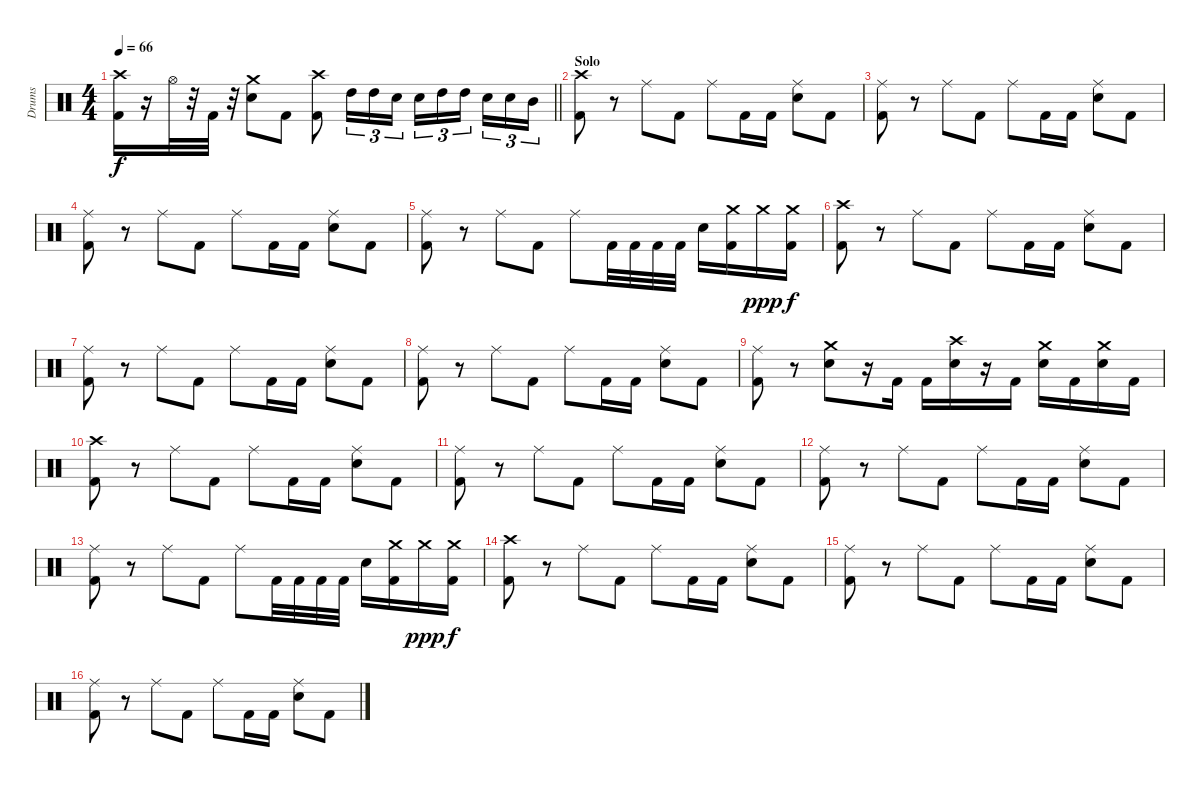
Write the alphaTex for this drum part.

\track ("Drums" "Drums") {instrument percussion}
\staff {score}
\articulation defaults
\ts (4 4)
\tempo 66
\clef neutral
\barLineRight lightlight
\ks c
("Crash high (hit)" "Kick (hit) 2").16{dy f} r.16 "Hi-Hat (open)".32 r.32 "Kick (hit) 2".32 r.32 ("Crash medium (hit)" "Snare (hit) 2").8 "Kick (hit) 2".8 ("Crash high (hit)" "Kick (hit) 2").8 "High Tom (hit)".16{tu (3 2)} "High Tom (hit)".16{tu (3 2)} "Snare (hit) 2".16{tu (3 2)} "Snare (hit) 2".16{tu (3 2)} "High Tom (hit)".16{tu (3 2)} "High Tom (hit)".16{tu (3 2) beam splitsecondary} "Snare (hit) 2".16{tu (3 2)} "Snare (hit) 2".16{tu (3 2)} "Mid Tom (hit)".16{tu (3 2)} |
\section ("" "Solo")
("Crash high (hit)" "Kick (hit) 2").8 r.8 "Ride (middle)".8 "Kick (hit) 2".8 "Ride (middle)".8 "Kick (hit) 2".16 "Kick (hit) 2".16 ("Ride (middle)" "Snare (hit) 2").8 "Kick (hit) 2".8 |
("Ride (middle)" "Kick (hit) 2").8 r.8 "Ride (middle)".8 "Kick (hit) 2".8 "Ride (middle)".8 "Kick (hit) 2".16 "Kick (hit) 2".16 ("Ride (middle)" "Snare (hit) 2").8 "Kick (hit) 2".8 |
("Ride (middle)" "Kick (hit) 2").8 r.8 "Ride (middle)".8 "Kick (hit) 2".8 "Ride (middle)".8 "Kick (hit) 2".16 "Kick (hit) 2".16 ("Ride (middle)" "Snare (hit) 2").8 "Kick (hit) 2".8 |
("Ride (middle)" "Kick (hit) 2").8 r.8 "Ride (middle)".8 "Kick (hit) 2".8 "Ride (middle)".8 "Kick (hit) 2".32 "Kick (hit) 2".32 "Kick (hit) 2".32 "Kick (hit) 2".32 "Snare (hit) 2".16 ("Crash medium (hit)" "Kick (hit) 2").16 "Crash medium (hit)".16{dy ppp} ("Crash medium (hit)" "Kick (hit) 2").16{dy f} |
("Crash high (hit)" "Kick (hit) 2").8 r.8 "Ride (middle)".8 "Kick (hit) 2".8 "Ride (middle)".8 "Kick (hit) 2".16 "Kick (hit) 2".16 ("Ride (middle)" "Snare (hit) 2").8 "Kick (hit) 2".8 |
("Ride (middle)" "Kick (hit) 2").8 r.8 "Ride (middle)".8 "Kick (hit) 2".8 "Ride (middle)".8 "Kick (hit) 2".16 "Kick (hit) 2".16 ("Ride (middle)" "Snare (hit) 2").8 "Kick (hit) 2".8 |
("Ride (middle)" "Kick (hit) 2").8 r.8 "Ride (middle)".8 "Kick (hit) 2".8 "Ride (middle)".8 "Kick (hit) 2".16 "Kick (hit) 2".16 ("Ride (middle)" "Snare (hit) 2").8 "Kick (hit) 2".8 |
("Ride (middle)" "Kick (hit) 2").8 r.8 ("Crash medium (hit)" "Snare (hit) 2").8 r.16 "Kick (hit) 2".16 "Kick (hit) 2".16 ("Crash high (hit)" "Snare (hit) 2").16 r.16 "Kick (hit) 2".16 ("Crash medium (hit)" "Snare (hit) 2").16 "Kick (hit) 2".16 ("Crash medium (hit)" "Snare (hit) 2").16 "Kick (hit) 2".16 |
("Crash high (hit)" "Kick (hit) 2").8 r.8 "Ride (middle)".8 "Kick (hit) 2".8 "Ride (middle)".8 "Kick (hit) 2".16 "Kick (hit) 2".16 ("Ride (middle)" "Snare (hit) 2").8 "Kick (hit) 2".8 |
("Ride (middle)" "Kick (hit) 2").8 r.8 "Ride (middle)".8 "Kick (hit) 2".8 "Ride (middle)".8 "Kick (hit) 2".16 "Kick (hit) 2".16 ("Ride (middle)" "Snare (hit) 2").8 "Kick (hit) 2".8 |
("Ride (middle)" "Kick (hit) 2").8 r.8 "Ride (middle)".8 "Kick (hit) 2".8 "Ride (middle)".8 "Kick (hit) 2".16 "Kick (hit) 2".16 ("Ride (middle)" "Snare (hit) 2").8 "Kick (hit) 2".8 |
("Ride (middle)" "Kick (hit) 2").8 r.8 "Ride (middle)".8 "Kick (hit) 2".8 "Ride (middle)".8 "Kick (hit) 2".32 "Kick (hit) 2".32 "Kick (hit) 2".32 "Kick (hit) 2".32 "Snare (hit) 2".16 ("Crash medium (hit)" "Kick (hit) 2").16 "Crash medium (hit)".16{dy ppp} ("Crash medium (hit)" "Kick (hit) 2").16{dy f} |
("Crash high (hit)" "Kick (hit) 2").8 r.8 "Ride (middle)".8 "Kick (hit) 2".8 "Ride (middle)".8 "Kick (hit) 2".16 "Kick (hit) 2".16 ("Ride (middle)" "Snare (hit) 2").8 "Kick (hit) 2".8 |
("Ride (middle)" "Kick (hit) 2").8 r.8 "Ride (middle)".8 "Kick (hit) 2".8 "Ride (middle)".8 "Kick (hit) 2".16 "Kick (hit) 2".16 ("Ride (middle)" "Snare (hit) 2").8 "Kick (hit) 2".8 |
("Ride (middle)" "Kick (hit) 2").8 r.8 "Ride (middle)".8 "Kick (hit) 2".8 "Ride (middle)".8 "Kick (hit) 2".16 "Kick (hit) 2".16 ("Ride (middle)" "Snare (hit) 2").8 "Kick (hit) 2".8
